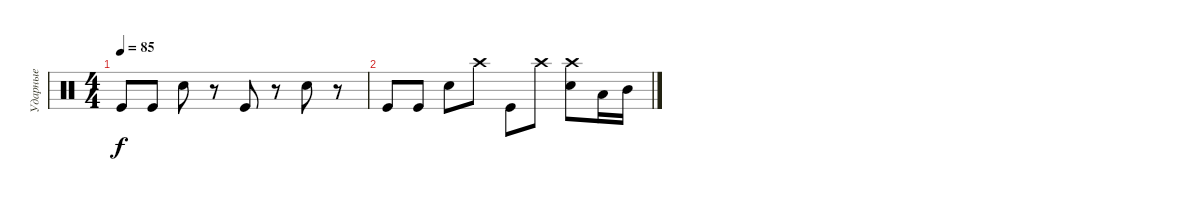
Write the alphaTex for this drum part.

\track ("Ударные" "Ударные") {instrument percussion}
\staff {score}
\articulation defaults
\ts (4 4)
\tempo 85
\clef neutral
\ks c "Kick (hit)".8{dy f} "Kick (hit)".8 "Hand Clap (hit)".8
r.8 "Kick (hit)".8 r.8 "Hand Clap (hit)".8 r.8 |
"Kick (hit)".8 "Kick (hit)".8 "Hand Clap (hit)".8 "Crash high (hit)".8 "Kick (hit)".8 "Crash high (hit)".8 ("Crash high (hit)" "Hand Clap (hit)").8 "Low Floor Tom (hit)".16 "Mid Tom (hit)".16
